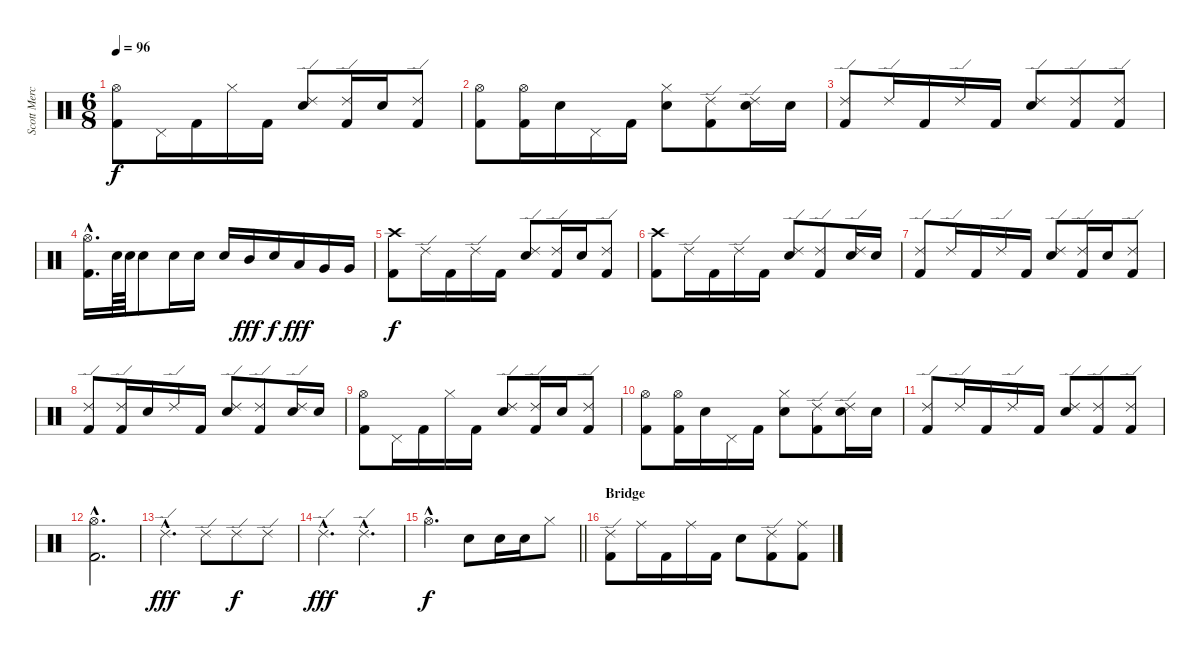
\track ("Scott Mercado Drums" "Scott Merc") {instrument percussion}
\staff {score}
\articulation defaults
\ts (6 8)
\tempo 96
\clef neutral
\ks c
("Hi-Hat (open)" "Kick (hit) 2").8{dy f} "Pedal Hi-Hat (hit)".16 "Kick (hit) 2".16 "Hi-Hat (closed)".16 "Kick (hit) 2".16 ("Ride (edge) 2" "Electric Snare (hit)").8 ("Ride (edge) 2" "Kick (hit) 2").16 "Electric Snare (hit)".16 ("Ride (edge) 2" "Kick (hit) 2").8 |
("Hi-Hat (open)" "Kick (hit) 2").8 ("Hi-Hat (open)" "Kick (hit) 2").16 "Electric Snare (hit)".16 "Pedal Hi-Hat (hit)".16 "Kick (hit) 2".16 ("Hi-Hat (closed)" "Electric Snare (hit)").8 ("Ride (edge) 2" "Kick (hit) 2").8 ("Ride (edge) 2" "Electric Snare (hit)").16 "Electric Snare (hit)".16 |
("Ride (edge) 2" "Kick (hit) 2").8 "Ride (edge) 2".16 "Kick (hit) 2".16 "Ride (edge) 2".16 "Kick (hit) 2".16 ("Ride (edge) 2" "Electric Snare (hit)").8 ("Ride (edge) 2" "Kick (hit) 2").8 ("Ride (edge) 2" "Kick (hit) 2").8 |
("Hi-Hat (open)"{hac} "Kick (hit) 2"{hac}).16{d} "Electric Snare (hit)".64 "Electric Snare (hit)".64 "Electric Snare (hit)".8 "Electric Snare (hit)".16 "Electric Snare (hit)".16 "Electric Snare (hit)".16 "Mid Tom (hit)".16{dy fff} "Electric Snare (hit)".16{dy f} "Low Tom (hit)".16{dy fff} "Very Low Tom (hit)".16 "Very Low Tom (hit)".16 |
("Crash high (hit)" "Kick (hit) 2").8{dy f} "Ride (edge) 2".16 "Kick (hit) 2".16 "Ride (edge) 2".16 "Kick (hit) 2".16 ("Ride (edge) 2" "Electric Snare (hit)").8 ("Ride (edge) 2" "Kick (hit) 2").16 "Electric Snare (hit)".16 ("Ride (edge) 2" "Kick (hit) 2").8 |
("Crash high (hit)" "Kick (hit) 2").8 "Ride (edge) 2".16 "Kick (hit) 2".16 "Ride (edge) 2".16 "Kick (hit) 2".16 ("Ride (edge) 2" "Electric Snare (hit)").8 ("Ride (edge) 2" "Kick (hit) 2").8 ("Ride (edge) 2" "Electric Snare (hit)").16 "Electric Snare (hit)".16 |
("Ride (edge) 2" "Kick (hit) 2").8 "Ride (edge) 2".16 "Kick (hit) 2".16 "Ride (edge) 2".16 "Kick (hit) 2".16 ("Ride (edge) 2" "Electric Snare (hit)").8 ("Ride (edge) 2" "Kick (hit) 2").16 "Electric Snare (hit)".16 ("Ride (edge) 2" "Kick (hit) 2").8 |
("Ride (edge) 2" "Kick (hit) 2").8 ("Ride (edge) 2" "Kick (hit) 2").16 "Electric Snare (hit)".16 "Ride (edge) 2".16 "Kick (hit) 2".16 ("Ride (edge) 2" "Electric Snare (hit)").8 ("Ride (edge) 2" "Kick (hit) 2").8 ("Ride (edge) 2" "Electric Snare (hit)").16 "Electric Snare (hit)".16 |
("Hi-Hat (open)" "Kick (hit) 2").8 "Pedal Hi-Hat (hit)".16 "Kick (hit) 2".16 "Hi-Hat (closed)".16 "Kick (hit) 2".16 ("Ride (edge) 2" "Electric Snare (hit)").8 ("Ride (edge) 2" "Kick (hit) 2").16 "Electric Snare (hit)".16 ("Ride (edge) 2" "Kick (hit) 2").8 |
("Hi-Hat (open)" "Kick (hit) 2").8 ("Hi-Hat (open)" "Kick (hit) 2").16 "Electric Snare (hit)".16 "Pedal Hi-Hat (hit)".16 "Kick (hit) 2".16 ("Hi-Hat (closed)" "Electric Snare (hit)").8 ("Ride (edge) 2" "Kick (hit) 2").8 ("Ride (edge) 2" "Electric Snare (hit)").16 "Electric Snare (hit)".16 |
("Ride (edge) 2" "Kick (hit) 2").8 "Ride (edge) 2".16 "Kick (hit) 2".16 "Ride (edge) 2".16 "Kick (hit) 2".16 ("Ride (edge) 2" "Electric Snare (hit)").8 ("Ride (edge) 2" "Kick (hit) 2").8 ("Ride (edge) 2" "Kick (hit) 2").8 |
("Hi-Hat (open)"{hac} "Kick (hit) 2"{hac}).2{d} |
"Ride (edge) 2"{hac}.4{d dy fff} "Ride (edge) 2".8 "Ride (edge) 2".8{dy f} "Ride (edge) 2".8 |
"Ride (edge) 2"{hac}.4{d dy fff} "Ride (edge) 2"{hac}.4{d} |
\barLineRight lightlight "Hi-Hat (open)"{hac}.4{d dy f} "Electric Snare (hit)".8 "Electric Snare (hit)".16 "Electric Snare (hit)".16 "Hi-Hat (closed)".8
|
\section ("" "Bridge")
("Ride (edge) 2" "Kick (hit) 2").8 "Ride (middle)".16 "Kick (hit) 2".16 "Ride (middle)".16 "Kick (hit) 2".16 "Electric Snare (hit)".8 ("Ride (edge) 2" "Kick (hit) 2").8 ("Ride (middle)" "Kick (hit) 2").8
